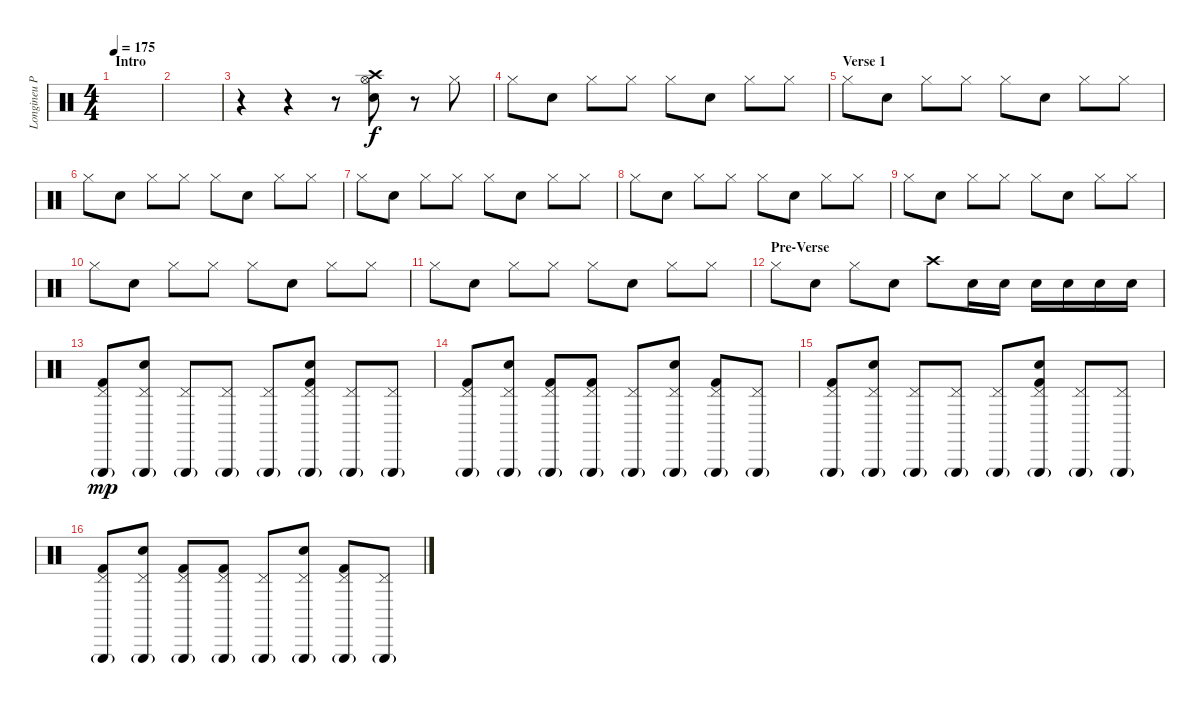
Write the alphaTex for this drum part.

\track ("Longineu Parsons III Drums" "Longineu P") {instrument percussion}
\staff {score}
\articulation defaults
\ts (4 4)
\section ("" "Intro")
\tempo 175
\clef neutral
\ks c
|
|
r.4 r.4 r.8 ("Snare (hit) 2" "Crash high (hit)" "Hi-Hat (open)").8 r.8 "Hi-Hat (closed)".8 |
"Hi-Hat (closed)".8 "Snare (hit) 2".8 "Hi-Hat (closed)".8 "Hi-Hat (closed)".8 "Hi-Hat (closed)".8 "Snare (hit) 2".8 "Hi-Hat (closed)".8 "Hi-Hat (closed)".8 |
\section ("" "Verse 1")
"Hi-Hat (closed)".8 "Snare (hit) 2".8 "Hi-Hat (closed)".8 "Hi-Hat (closed)".8 "Hi-Hat (closed)".8 "Snare (hit) 2".8 "Hi-Hat (closed)".8 "Hi-Hat (closed)".8 |
"Hi-Hat (closed)".8 "Snare (hit) 2".8 "Hi-Hat (closed)".8 "Hi-Hat (closed)".8 "Hi-Hat (closed)".8 "Snare (hit) 2".8 "Hi-Hat (closed)".8 "Hi-Hat (closed)".8 |
"Hi-Hat (closed)".8 "Snare (hit) 2".8 "Hi-Hat (closed)".8 "Hi-Hat (closed)".8 "Hi-Hat (closed)".8 "Snare (hit) 2".8 "Hi-Hat (closed)".8 "Hi-Hat (closed)".8 |
"Hi-Hat (closed)".8 "Snare (hit) 2".8 "Hi-Hat (closed)".8 "Hi-Hat (closed)".8 "Hi-Hat (closed)".8 "Snare (hit) 2".8 "Hi-Hat (closed)".8 "Hi-Hat (closed)".8 |
"Hi-Hat (closed)".8 "Snare (hit) 2".8 "Hi-Hat (closed)".8 "Hi-Hat (closed)".8 "Hi-Hat (closed)".8 "Snare (hit) 2".8 "Hi-Hat (closed)".8 "Hi-Hat (closed)".8 |
"Hi-Hat (closed)".8 "Snare (hit) 2".8 "Hi-Hat (closed)".8 "Hi-Hat (closed)".8 "Hi-Hat (closed)".8 "Snare (hit) 2".8 "Hi-Hat (closed)".8 "Hi-Hat (closed)".8 |
"Hi-Hat (closed)".8 "Snare (hit) 2".8 "Hi-Hat (closed)".8 "Hi-Hat (closed)".8 "Hi-Hat (closed)".8 "Snare (hit) 2".8 "Hi-Hat (closed)".8 "Hi-Hat (closed)".8 |
\section ("" "Pre-Verse")
"Hi-Hat (closed)".8 "Snare (hit) 2".8 "Hi-Hat (closed)".8 "Snare (hit) 2".8 "Crash high (hit)".8 "Snare (hit) 2".16 "Snare (hit) 2".16 "Snare (hit) 2".16 "Snare (hit) 2".16 "Snare (hit) 2".16 "Snare (hit) 2".16 |
("Triangle (hit)"{g} "Pedal Hi-Hat (hit)" "Kick (hit) 2").8{dy mp} ("Triangle (hit)"{g} "Pedal Hi-Hat (hit)" "Electric Snare (hit)").8 ("Triangle (hit)"{g} "Pedal Hi-Hat (hit)").8 ("Triangle (hit)"{g} "Pedal Hi-Hat (hit)").8 ("Triangle (hit)"{g} "Pedal Hi-Hat (hit)").8 ("Triangle (hit)"{g} "Pedal Hi-Hat (hit)" "Electric Snare (hit)" "Kick (hit) 2").8 ("Triangle (hit)"{g} "Pedal Hi-Hat (hit)").8 ("Triangle (hit)"{g} "Pedal Hi-Hat (hit)").8 |
("Triangle (hit)"{g} "Pedal Hi-Hat (hit)" "Kick (hit) 2").8 ("Triangle (hit)"{g} "Pedal Hi-Hat (hit)" "Electric Snare (hit)").8 ("Triangle (hit)"{g} "Pedal Hi-Hat (hit)" "Kick (hit) 2").8 ("Triangle (hit)"{g} "Pedal Hi-Hat (hit)" "Kick (hit) 2").8 ("Triangle (hit)"{g} "Pedal Hi-Hat (hit)").8 ("Triangle (hit)"{g} "Pedal Hi-Hat (hit)" "Electric Snare (hit)").8 ("Triangle (hit)"{g} "Pedal Hi-Hat (hit)" "Kick (hit) 2").8 ("Triangle (hit)"{g} "Pedal Hi-Hat (hit)").8 |
("Triangle (hit)"{g} "Pedal Hi-Hat (hit)" "Kick (hit) 2").8 ("Triangle (hit)"{g} "Pedal Hi-Hat (hit)" "Electric Snare (hit)").8 ("Triangle (hit)"{g} "Pedal Hi-Hat (hit)").8 ("Triangle (hit)"{g} "Pedal Hi-Hat (hit)").8 ("Triangle (hit)"{g} "Pedal Hi-Hat (hit)").8 ("Triangle (hit)"{g} "Pedal Hi-Hat (hit)" "Electric Snare (hit)" "Kick (hit) 2").8 ("Triangle (hit)"{g} "Pedal Hi-Hat (hit)").8 ("Triangle (hit)"{g} "Pedal Hi-Hat (hit)").8 |
("Triangle (hit)"{g} "Pedal Hi-Hat (hit)" "Kick (hit) 2").8 ("Triangle (hit)"{g} "Pedal Hi-Hat (hit)" "Electric Snare (hit)").8 ("Triangle (hit)"{g} "Pedal Hi-Hat (hit)" "Kick (hit) 2").8 ("Triangle (hit)"{g} "Pedal Hi-Hat (hit)" "Kick (hit) 2").8 ("Triangle (hit)"{g} "Pedal Hi-Hat (hit)").8 ("Triangle (hit)"{g} "Pedal Hi-Hat (hit)" "Electric Snare (hit)").8 ("Triangle (hit)"{g} "Pedal Hi-Hat (hit)" "Kick (hit) 2").8 ("Triangle (hit)"{g} "Pedal Hi-Hat (hit)").8
